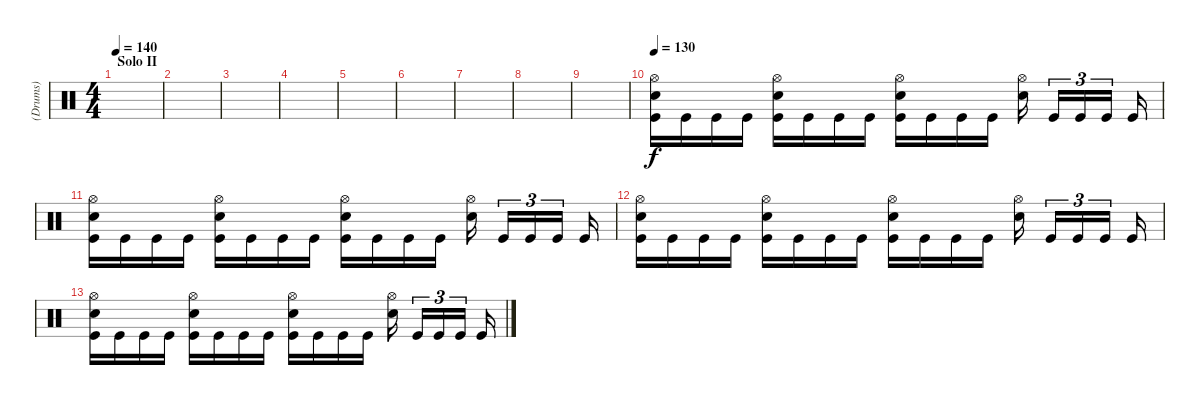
\track ("(Drums)" "(Drums)") {instrument percussion}
\staff {score}
\articulation defaults
\ts (4 4)
\section ("" "Solo II")
\tempo 140
\clef neutral
\ks c
|
|
|
|
|
|
|
|
|
\tempo 130
("Hi-Hat (open)" "Snare (hit) 2" "Kick (hit)").16 "Kick (hit)".16 "Kick (hit)".16 "Kick (hit)".16 ("Hi-Hat (open)" "Snare (hit) 2" "Kick (hit)").16 "Kick (hit)".16 "Kick (hit)".16 "Kick (hit)".16 ("Hi-Hat (open)" "Snare (hit) 2" "Kick (hit)").16 "Kick (hit)".16 "Kick (hit)".16 "Kick (hit)".16 ("Hi-Hat (open)" "Snare (hit) 2").16{beam splitsecondary} "Kick (hit)".16{tu (3 2)} "Kick (hit)".16{tu (3 2)} "Kick (hit)".16{tu (3 2) beam splitsecondary} "Kick (hit)".16 |
("Hi-Hat (open)" "Snare (hit) 2" "Kick (hit)").16 "Kick (hit)".16 "Kick (hit)".16 "Kick (hit)".16 ("Hi-Hat (open)" "Snare (hit) 2" "Kick (hit)").16 "Kick (hit)".16 "Kick (hit)".16 "Kick (hit)".16 ("Hi-Hat (open)" "Snare (hit) 2" "Kick (hit)").16 "Kick (hit)".16 "Kick (hit)".16 "Kick (hit)".16 ("Hi-Hat (open)" "Snare (hit) 2").16{beam splitsecondary} "Kick (hit)".16{tu (3 2)} "Kick (hit)".16{tu (3 2)} "Kick (hit)".16{tu (3 2) beam splitsecondary} "Kick (hit)".16 |
("Hi-Hat (open)" "Snare (hit) 2" "Kick (hit)").16 "Kick (hit)".16 "Kick (hit)".16 "Kick (hit)".16 ("Hi-Hat (open)" "Snare (hit) 2" "Kick (hit)").16 "Kick (hit)".16 "Kick (hit)".16 "Kick (hit)".16 ("Hi-Hat (open)" "Snare (hit) 2" "Kick (hit)").16 "Kick (hit)".16 "Kick (hit)".16 "Kick (hit)".16 ("Hi-Hat (open)" "Snare (hit) 2").16{beam splitsecondary} "Kick (hit)".16{tu (3 2)} "Kick (hit)".16{tu (3 2)} "Kick (hit)".16{tu (3 2) beam splitsecondary} "Kick (hit)".16 |
("Hi-Hat (open)" "Snare (hit) 2" "Kick (hit)").16 "Kick (hit)".16 "Kick (hit)".16 "Kick (hit)".16 ("Hi-Hat (open)" "Snare (hit) 2" "Kick (hit)").16 "Kick (hit)".16 "Kick (hit)".16 "Kick (hit)".16 ("Hi-Hat (open)" "Snare (hit) 2" "Kick (hit)").16 "Kick (hit)".16 "Kick (hit)".16 "Kick (hit)".16 ("Hi-Hat (open)" "Snare (hit) 2").16{beam splitsecondary} "Kick (hit)".16{tu (3 2)} "Kick (hit)".16{tu (3 2)} "Kick (hit)".16{tu (3 2) beam splitsecondary} "Kick (hit)".16
